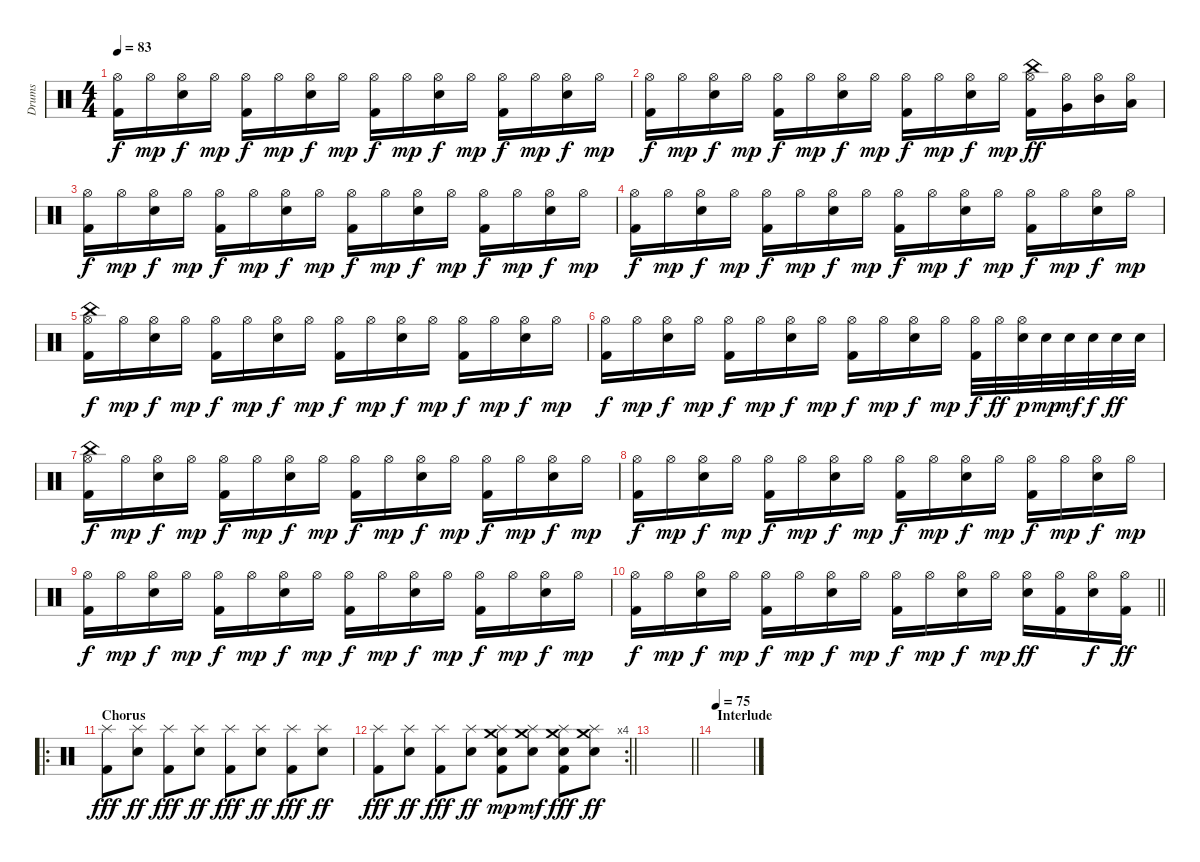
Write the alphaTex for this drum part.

\track ("Drums" "Drums") {instrument percussion}
\staff {score}
\articulation defaults
\ts (4 4)
\tempo 83
\clef neutral
\ks aminor
("Hi-Hat (open)" "Kick (hit) 2").16{dy f} "Hi-Hat (open)".16{dy mp} ("Hi-Hat (open)" "Snare (hit) 2").16{dy f} "Hi-Hat (open)".16{dy mp} ("Hi-Hat (open)" "Kick (hit) 2").16{dy f} "Hi-Hat (open)".16{dy mp} ("Hi-Hat (open)" "Snare (hit) 2").16{dy f} "Hi-Hat (open)".16{dy mp} ("Hi-Hat (open)" "Kick (hit) 2").16{dy f} "Hi-Hat (open)".16{dy mp} ("Hi-Hat (open)" "Snare (hit) 2").16{dy f} "Hi-Hat (open)".16{dy mp} ("Hi-Hat (open)" "Kick (hit) 2").16{dy f} "Hi-Hat (open)".16{dy mp} ("Hi-Hat (open)" "Snare (hit) 2").16{dy f} "Hi-Hat (open)".16{dy mp} |
("Hi-Hat (open)" "Kick (hit) 2").16{dy f} "Hi-Hat (open)".16{dy mp} ("Hi-Hat (open)" "Snare (hit) 2").16{dy f} "Hi-Hat (open)".16{dy mp} ("Hi-Hat (open)" "Kick (hit) 2").16{dy f} "Hi-Hat (open)".16{dy mp} ("Hi-Hat (open)" "Snare (hit) 2").16{dy f} "Hi-Hat (open)".16{dy mp} ("Hi-Hat (open)" "Kick (hit) 2").16{dy f} "Hi-Hat (open)".16{dy mp} ("Hi-Hat (open)" "Snare (hit) 2").16{dy f} "Hi-Hat (open)".16{dy mp} ("Hi-Hat (open)" "Kick (hit) 2" "China (hit)").16{dy ff} ("Hi-Hat (open)" "Very Low Tom (hit)").16 ("Hi-Hat (open)" "Mid Tom (hit)").16 ("Hi-Hat (open)" "Low Tom (hit)").16 |
("Hi-Hat (open)" "Kick (hit) 2").16{dy f} "Hi-Hat (open)".16{dy mp} ("Hi-Hat (open)" "Snare (hit) 2").16{dy f} "Hi-Hat (open)".16{dy mp} ("Hi-Hat (open)" "Kick (hit) 2").16{dy f} "Hi-Hat (open)".16{dy mp} ("Hi-Hat (open)" "Snare (hit) 2").16{dy f} "Hi-Hat (open)".16{dy mp} ("Hi-Hat (open)" "Kick (hit) 2").16{dy f} "Hi-Hat (open)".16{dy mp} ("Hi-Hat (open)" "Snare (hit) 2").16{dy f} "Hi-Hat (open)".16{dy mp} ("Hi-Hat (open)" "Kick (hit) 2").16{dy f} "Hi-Hat (open)".16{dy mp} ("Hi-Hat (open)" "Snare (hit) 2").16{dy f} "Hi-Hat (open)".16{dy mp} |
("Hi-Hat (open)" "Kick (hit) 2").16{dy f} "Hi-Hat (open)".16{dy mp} ("Hi-Hat (open)" "Snare (hit) 2").16{dy f} "Hi-Hat (open)".16{dy mp} ("Hi-Hat (open)" "Kick (hit) 2").16{dy f} "Hi-Hat (open)".16{dy mp} ("Hi-Hat (open)" "Snare (hit) 2").16{dy f} "Hi-Hat (open)".16{dy mp} ("Hi-Hat (open)" "Kick (hit) 2").16{dy f} "Hi-Hat (open)".16{dy mp} ("Hi-Hat (open)" "Snare (hit) 2").16{dy f} "Hi-Hat (open)".16{dy mp} ("Hi-Hat (open)" "Kick (hit) 2").16{dy f} "Hi-Hat (open)".16{dy mp} ("Hi-Hat (open)" "Snare (hit) 2").16{dy f} "Hi-Hat (open)".16{dy mp} |
("Hi-Hat (open)" "Kick (hit) 2" "China (hit)").16{dy f} "Hi-Hat (open)".16{dy mp} ("Hi-Hat (open)" "Snare (hit) 2").16{dy f} "Hi-Hat (open)".16{dy mp} ("Hi-Hat (open)" "Kick (hit) 2").16{dy f} "Hi-Hat (open)".16{dy mp} ("Hi-Hat (open)" "Snare (hit) 2").16{dy f} "Hi-Hat (open)".16{dy mp} ("Hi-Hat (open)" "Kick (hit) 2").16{dy f} "Hi-Hat (open)".16{dy mp} ("Hi-Hat (open)" "Snare (hit) 2").16{dy f} "Hi-Hat (open)".16{dy mp} ("Hi-Hat (open)" "Kick (hit) 2").16{dy f} "Hi-Hat (open)".16{dy mp} ("Hi-Hat (open)" "Snare (hit) 2").16{dy f} "Hi-Hat (open)".16{dy mp} |
("Hi-Hat (open)" "Kick (hit) 2").16{dy f} "Hi-Hat (open)".16{dy mp} ("Hi-Hat (open)" "Snare (hit) 2").16{dy f} "Hi-Hat (open)".16{dy mp} ("Hi-Hat (open)" "Kick (hit) 2").16{dy f} "Hi-Hat (open)".16{dy mp} ("Hi-Hat (open)" "Snare (hit) 2").16{dy f} "Hi-Hat (open)".16{dy mp} ("Hi-Hat (open)" "Kick (hit) 2").16{dy f} "Hi-Hat (open)".16{dy mp} ("Hi-Hat (open)" "Snare (hit) 2").16{dy f} "Hi-Hat (open)".16{dy mp} ("Hi-Hat (open)" "Kick (hit) 2").32{dy f} "Hi-Hat (open)".32{dy ff} ("Hi-Hat (open)" "Snare (hit) 2").32{dy p} "Snare (hit) 2".32{dy mp} "Snare (hit) 2".32{dy mf} "Snare (hit) 2".32{dy f} "Snare (hit) 2".32{dy ff} "Snare (hit) 2".32 |
("Hi-Hat (open)" "Kick (hit) 2" "China (hit)").16{dy f} "Hi-Hat (open)".16{dy mp} ("Hi-Hat (open)" "Snare (hit) 2").16{dy f} "Hi-Hat (open)".16{dy mp} ("Hi-Hat (open)" "Kick (hit) 2").16{dy f} "Hi-Hat (open)".16{dy mp} ("Hi-Hat (open)" "Snare (hit) 2").16{dy f} "Hi-Hat (open)".16{dy mp} ("Hi-Hat (open)" "Kick (hit) 2").16{dy f} "Hi-Hat (open)".16{dy mp} ("Hi-Hat (open)" "Snare (hit) 2").16{dy f} "Hi-Hat (open)".16{dy mp} ("Hi-Hat (open)" "Kick (hit) 2").16{dy f} "Hi-Hat (open)".16{dy mp} ("Hi-Hat (open)" "Snare (hit) 2").16{dy f} "Hi-Hat (open)".16{dy mp} |
("Hi-Hat (open)" "Kick (hit) 2").16{dy f} "Hi-Hat (open)".16{dy mp} ("Hi-Hat (open)" "Snare (hit) 2").16{dy f} "Hi-Hat (open)".16{dy mp} ("Hi-Hat (open)" "Kick (hit) 2").16{dy f} "Hi-Hat (open)".16{dy mp} ("Hi-Hat (open)" "Snare (hit) 2").16{dy f} "Hi-Hat (open)".16{dy mp} ("Hi-Hat (open)" "Kick (hit) 2").16{dy f} "Hi-Hat (open)".16{dy mp} ("Hi-Hat (open)" "Snare (hit) 2").16{dy f} "Hi-Hat (open)".16{dy mp} ("Hi-Hat (open)" "Kick (hit) 2").16{dy f} "Hi-Hat (open)".16{dy mp} ("Hi-Hat (open)" "Snare (hit) 2").16{dy f} "Hi-Hat (open)".16{dy mp} |
("Hi-Hat (open)" "Kick (hit) 2").16{dy f} "Hi-Hat (open)".16{dy mp} ("Hi-Hat (open)" "Snare (hit) 2").16{dy f} "Hi-Hat (open)".16{dy mp} ("Hi-Hat (open)" "Kick (hit) 2").16{dy f} "Hi-Hat (open)".16{dy mp} ("Hi-Hat (open)" "Snare (hit) 2").16{dy f} "Hi-Hat (open)".16{dy mp} ("Hi-Hat (open)" "Kick (hit) 2").16{dy f} "Hi-Hat (open)".16{dy mp} ("Hi-Hat (open)" "Snare (hit) 2").16{dy f} "Hi-Hat (open)".16{dy mp} ("Hi-Hat (open)" "Kick (hit) 2").16{dy f} "Hi-Hat (open)".16{dy mp} ("Hi-Hat (open)" "Snare (hit) 2").16{dy f} "Hi-Hat (open)".16{dy mp} |
\barLineRight lightlight
("Hi-Hat (open)" "Kick (hit) 2").16{dy f} "Hi-Hat (open)".16{dy mp} ("Hi-Hat (open)" "Snare (hit) 2").16{dy f} "Hi-Hat (open)".16{dy mp} ("Hi-Hat (open)" "Kick (hit) 2").16{dy f} "Hi-Hat (open)".16{dy mp} ("Hi-Hat (open)" "Snare (hit) 2").16{dy f} "Hi-Hat (open)".16{dy mp} ("Hi-Hat (open)" "Kick (hit) 2").16{dy f} "Hi-Hat (open)".16{dy mp} ("Hi-Hat (open)" "Snare (hit) 2").16{dy f} "Hi-Hat (open)".16{dy mp} ("Hi-Hat (open)" "Snare (hit) 2").16{dy ff} ("Hi-Hat (open)" "Kick (hit) 2").16 ("Hi-Hat (open)" "Snare (hit) 2").16{dy f} ("Hi-Hat (open)" "Kick (hit) 2").16{dy ff} |
\ro
\section ("" "Chorus")
("Splash (hit)" "Kick (hit) 2").8{dy fff volume 12} ("Splash (hit)" "Snare (hit) 2").8{dy ff} ("Splash (hit)" "Kick (hit) 2").8{dy fff} ("Splash (hit)" "Snare (hit) 2").8{dy ff} ("Splash (hit)" "Kick (hit) 2").8{dy fff} ("Splash (hit)" "Snare (hit) 2").8{dy ff} ("Splash (hit)" "Kick (hit) 2").8{dy fff} ("Splash (hit)" "Snare (hit) 2").8{dy ff} |
\rc 4
\barLineRight lightlight
("Splash (hit)" "Kick (hit) 2").8{dy fff} ("Splash (hit)" "Snare (hit) 2").8{dy ff} ("Splash (hit)" "Kick (hit) 2").8{dy fff} ("Splash (hit)" "Snare (hit) 2").8{dy ff} ("Splash (hit)" "Kick (hit) 2" "Snare (hit) 2" "Crash medium (hit)").8{dy mp} ("Splash (hit)" "Snare (hit) 2" "Crash medium (hit)").8{dy mf} ("Splash (hit)" "Kick (hit) 2" "Snare (hit) 2" "Crash medium (hit)").8{dy fff} ("Splash (hit)" "Snare (hit) 2" "Crash medium (hit)").8{dy ff} |
\barLineRight lightlight
|
\section ("" "Interlude")
\tempo 75
